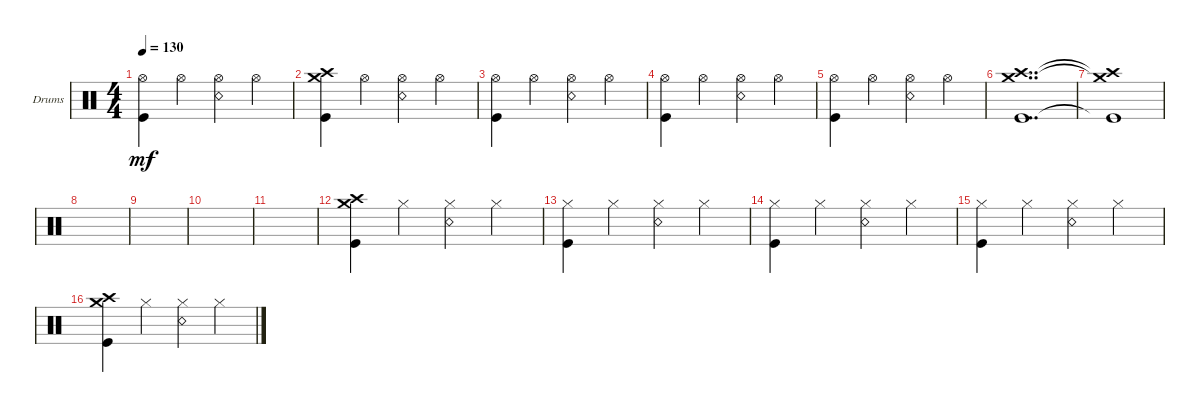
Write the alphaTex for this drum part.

\defaultSystemsLayout 4
\bracketExtendMode groupsimilarinstruments
\firstSystemTrackNameOrientation horizontal
\otherSystemsTrackNameOrientation horizontal
\track ("Drumkit" "Drums") {instrument percussion}
\staff {score}
\articulation defaults
\ts (4 4)
\tempo 130
\clef neutral
\ks c
("Hi-Hat (open)" "Kick (hit)").4{dy mf} "Hi-Hat (open)".4 ("Hi-Hat (open)" "Snare (rim shot)").4 "Hi-Hat (open)".4 |
("Crash medium (hit)" "Crash high (hit)" "Kick (hit)").4 "Hi-Hat (open)".4 ("Hi-Hat (open)" "Snare (rim shot)").4 "Hi-Hat (open)".4 |
("Hi-Hat (open)" "Kick (hit)").4 "Hi-Hat (open)".4 ("Hi-Hat (open)" "Snare (rim shot)").4 "Hi-Hat (open)".4 |
("Hi-Hat (open)" "Kick (hit)").4 "Hi-Hat (open)".4 ("Hi-Hat (open)" "Snare (rim shot)").4 "Hi-Hat (open)".4 |
("Hi-Hat (open)" "Kick (hit)").4 "Hi-Hat (open)".4 ("Hi-Hat (open)" "Snare (rim shot)").4 "Hi-Hat (open)".4 |
("Crash medium (hit)" "Crash high (hit)" "Kick (hit)").1{dd} |
("Crash medium (hit)"{t} "Crash high (hit)"{t} "Kick (hit)"{t}).1 |
|
|
|
|
("Crash medium (hit)" "Crash high (hit)" "Kick (hit)").4 "Hi-Hat (closed)".4 ("Hi-Hat (closed)" "Snare (rim shot)").4 "Hi-Hat (closed)".4 |
("Hi-Hat (closed)" "Kick (hit)").4 "Hi-Hat (closed)".4 ("Hi-Hat (closed)" "Snare (rim shot)").4 "Hi-Hat (closed)".4 |
("Hi-Hat (closed)" "Kick (hit)").4 "Hi-Hat (closed)".4 ("Hi-Hat (closed)" "Snare (rim shot)").4 "Hi-Hat (closed)".4 |
("Hi-Hat (closed)" "Kick (hit)").4 "Hi-Hat (closed)".4 ("Hi-Hat (closed)" "Snare (rim shot)").4 "Hi-Hat (closed)".4 |
("Crash medium (hit)" "Crash high (hit)" "Kick (hit)").4 "Hi-Hat (closed)".4 ("Hi-Hat (closed)" "Snare (rim shot)").4 "Hi-Hat (closed)".4
